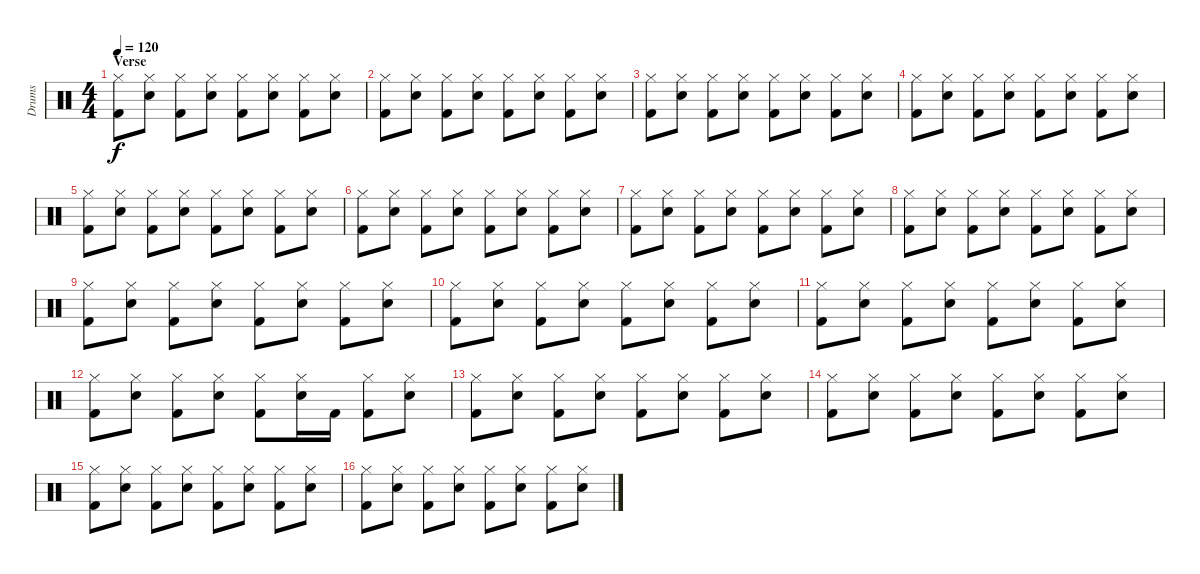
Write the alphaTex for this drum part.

\track ("Drums" "Drums") {instrument percussion}
\staff {score}
\articulation defaults
\ts (4 4)
\section ("" "Verse")
\tempo 120
\clef neutral
\ks c
("Hi-Hat (closed)" "Kick (hit) 2").8{dy f} ("Hi-Hat (closed)" "Electric Snare (hit)").8 ("Hi-Hat (closed)" "Kick (hit) 2").8 ("Hi-Hat (closed)" "Electric Snare (hit)").8 ("Hi-Hat (closed)" "Kick (hit) 2").8 ("Hi-Hat (closed)" "Electric Snare (hit)").8 ("Hi-Hat (closed)" "Kick (hit) 2").8 ("Hi-Hat (closed)" "Electric Snare (hit)").8 |
("Hi-Hat (closed)" "Kick (hit) 2").8 ("Hi-Hat (closed)" "Electric Snare (hit)").8 ("Hi-Hat (closed)" "Kick (hit) 2").8 ("Hi-Hat (closed)" "Electric Snare (hit)").8 ("Hi-Hat (closed)" "Kick (hit) 2").8 ("Hi-Hat (closed)" "Electric Snare (hit)").8 ("Hi-Hat (closed)" "Kick (hit) 2").8 ("Hi-Hat (closed)" "Electric Snare (hit)").8 |
("Hi-Hat (closed)" "Kick (hit) 2").8 ("Hi-Hat (closed)" "Electric Snare (hit)").8 ("Hi-Hat (closed)" "Kick (hit) 2").8 ("Hi-Hat (closed)" "Electric Snare (hit)").8 ("Hi-Hat (closed)" "Kick (hit) 2").8 ("Hi-Hat (closed)" "Electric Snare (hit)").8 ("Hi-Hat (closed)" "Kick (hit) 2").8 ("Hi-Hat (closed)" "Electric Snare (hit)").8 |
("Hi-Hat (closed)" "Kick (hit) 2").8 ("Hi-Hat (closed)" "Electric Snare (hit)").8 ("Hi-Hat (closed)" "Kick (hit) 2").8 ("Hi-Hat (closed)" "Electric Snare (hit)").8 ("Hi-Hat (closed)" "Kick (hit) 2").8 ("Hi-Hat (closed)" "Electric Snare (hit)").8 ("Hi-Hat (closed)" "Kick (hit) 2").8 ("Hi-Hat (closed)" "Electric Snare (hit)").8 |
("Hi-Hat (closed)" "Kick (hit) 2").8 ("Hi-Hat (closed)" "Electric Snare (hit)").8 ("Hi-Hat (closed)" "Kick (hit) 2").8 ("Hi-Hat (closed)" "Electric Snare (hit)").8 ("Hi-Hat (closed)" "Kick (hit) 2").8 ("Hi-Hat (closed)" "Electric Snare (hit)").8 ("Hi-Hat (closed)" "Kick (hit) 2").8 ("Hi-Hat (closed)" "Electric Snare (hit)").8 |
("Hi-Hat (closed)" "Kick (hit) 2").8 ("Hi-Hat (closed)" "Electric Snare (hit)").8 ("Hi-Hat (closed)" "Kick (hit) 2").8 ("Hi-Hat (closed)" "Electric Snare (hit)").8 ("Hi-Hat (closed)" "Kick (hit) 2").8 ("Hi-Hat (closed)" "Electric Snare (hit)").8 ("Hi-Hat (closed)" "Kick (hit) 2").8 ("Hi-Hat (closed)" "Electric Snare (hit)").8 |
("Hi-Hat (closed)" "Kick (hit) 2").8 ("Hi-Hat (closed)" "Electric Snare (hit)").8 ("Hi-Hat (closed)" "Kick (hit) 2").8 ("Hi-Hat (closed)" "Electric Snare (hit)").8 ("Hi-Hat (closed)" "Kick (hit) 2").8 ("Hi-Hat (closed)" "Electric Snare (hit)").8 ("Hi-Hat (closed)" "Kick (hit) 2").8 ("Hi-Hat (closed)" "Electric Snare (hit)").8 |
("Hi-Hat (closed)" "Kick (hit) 2").8 ("Hi-Hat (closed)" "Electric Snare (hit)").8 ("Hi-Hat (closed)" "Kick (hit) 2").8 ("Hi-Hat (closed)" "Electric Snare (hit)").8 ("Hi-Hat (closed)" "Kick (hit) 2").8 ("Hi-Hat (closed)" "Electric Snare (hit)").8 ("Hi-Hat (closed)" "Kick (hit) 2").8 ("Hi-Hat (closed)" "Electric Snare (hit)").8 |
("Hi-Hat (closed)" "Kick (hit) 2").8 ("Hi-Hat (closed)" "Electric Snare (hit)").8 ("Hi-Hat (closed)" "Kick (hit) 2").8 ("Hi-Hat (closed)" "Electric Snare (hit)").8 ("Hi-Hat (closed)" "Kick (hit) 2").8 ("Hi-Hat (closed)" "Electric Snare (hit)").8 ("Hi-Hat (closed)" "Kick (hit) 2").8 ("Hi-Hat (closed)" "Electric Snare (hit)").8 |
("Hi-Hat (closed)" "Kick (hit) 2").8 ("Hi-Hat (closed)" "Electric Snare (hit)").8 ("Hi-Hat (closed)" "Kick (hit) 2").8 ("Hi-Hat (closed)" "Electric Snare (hit)").8 ("Hi-Hat (closed)" "Kick (hit) 2").8 ("Hi-Hat (closed)" "Electric Snare (hit)").8 ("Hi-Hat (closed)" "Kick (hit) 2").8 ("Hi-Hat (closed)" "Electric Snare (hit)").8 |
("Hi-Hat (closed)" "Kick (hit) 2").8 ("Hi-Hat (closed)" "Electric Snare (hit)").8 ("Hi-Hat (closed)" "Kick (hit) 2").8 ("Hi-Hat (closed)" "Electric Snare (hit)").8 ("Hi-Hat (closed)" "Kick (hit) 2").8 ("Hi-Hat (closed)" "Electric Snare (hit)").8 ("Hi-Hat (closed)" "Kick (hit) 2").8 ("Hi-Hat (closed)" "Electric Snare (hit)").8 |
("Hi-Hat (closed)" "Kick (hit) 2").8 ("Hi-Hat (closed)" "Electric Snare (hit)").8 ("Hi-Hat (closed)" "Kick (hit) 2").8 ("Hi-Hat (closed)" "Electric Snare (hit)").8 ("Hi-Hat (closed)" "Kick (hit) 2").8 ("Hi-Hat (closed)" "Electric Snare (hit)").16 "Kick (hit) 2".16 ("Hi-Hat (closed)" "Kick (hit) 2").8 ("Hi-Hat (closed)" "Electric Snare (hit)").8 |
("Hi-Hat (closed)" "Kick (hit) 2").8 ("Hi-Hat (closed)" "Electric Snare (hit)").8 ("Hi-Hat (closed)" "Kick (hit) 2").8 ("Hi-Hat (closed)" "Electric Snare (hit)").8 ("Hi-Hat (closed)" "Kick (hit) 2").8 ("Hi-Hat (closed)" "Electric Snare (hit)").8 ("Hi-Hat (closed)" "Kick (hit) 2").8 ("Hi-Hat (closed)" "Electric Snare (hit)").8 |
("Hi-Hat (closed)" "Kick (hit) 2").8 ("Hi-Hat (closed)" "Electric Snare (hit)").8 ("Hi-Hat (closed)" "Kick (hit) 2").8 ("Hi-Hat (closed)" "Electric Snare (hit)").8 ("Hi-Hat (closed)" "Kick (hit) 2").8 ("Hi-Hat (closed)" "Electric Snare (hit)").8 ("Hi-Hat (closed)" "Kick (hit) 2").8 ("Hi-Hat (closed)" "Electric Snare (hit)").8 |
("Hi-Hat (closed)" "Kick (hit) 2").8 ("Hi-Hat (closed)" "Electric Snare (hit)").8 ("Hi-Hat (closed)" "Kick (hit) 2").8 ("Hi-Hat (closed)" "Electric Snare (hit)").8 ("Hi-Hat (closed)" "Kick (hit) 2").8 ("Hi-Hat (closed)" "Electric Snare (hit)").8 ("Hi-Hat (closed)" "Kick (hit) 2").8 ("Hi-Hat (closed)" "Electric Snare (hit)").8 |
("Hi-Hat (closed)" "Kick (hit) 2").8 ("Hi-Hat (closed)" "Electric Snare (hit)").8 ("Hi-Hat (closed)" "Kick (hit) 2").8 ("Hi-Hat (closed)" "Electric Snare (hit)").8 ("Hi-Hat (closed)" "Kick (hit) 2").8 ("Hi-Hat (closed)" "Electric Snare (hit)").8 ("Hi-Hat (closed)" "Kick (hit) 2").8 ("Hi-Hat (closed)" "Electric Snare (hit)").8
